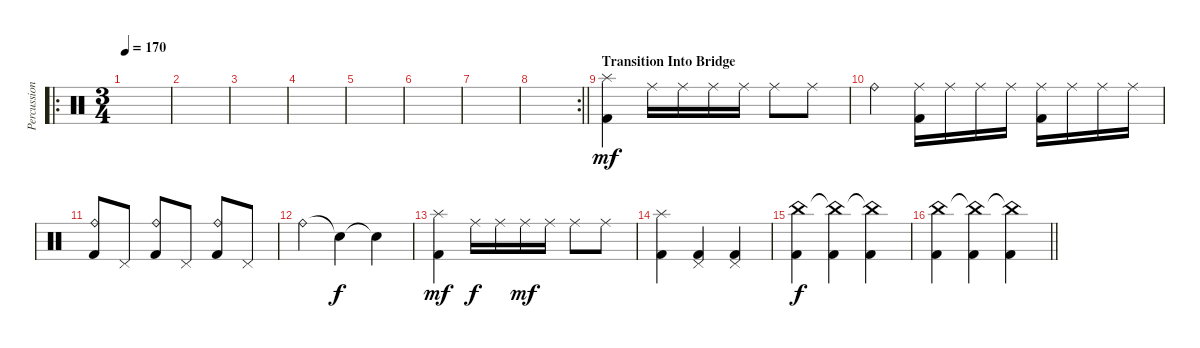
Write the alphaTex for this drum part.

\track ("Percussion" "Percussion") {instrument percussion}
\staff {score}
\articulation defaults
\ro
\ts (3 4)
\tempo 170
\clef neutral
\ks c
|
|
|
|
|
|
|
\rc 2
\barLineRight lightlight
|
\section ("" "Transition Into Bridge")
("Splash (hit)" "Kick (hit) 2").4{dy mf} "Ride (middle)".16 "Ride (middle)".16 "Ride (middle)".16 "Ride (middle)".16 "Ride (middle)".8 "Ride (middle)".8 |
"Ride (bell)".4 ("Ride (middle)" "Kick (hit) 2").16 "Ride (middle)".16 "Ride (middle)".16 "Ride (middle)".16 ("Ride (middle)" "Kick (hit) 2").16 "Ride (middle)".16 "Ride (middle)".16 "Ride (middle)".16 |
("Ride (bell)" "Kick (hit) 2").8 "Pedal Hi-Hat (hit)".8 ("Ride (bell)" "Kick (hit) 2").8 "Pedal Hi-Hat (hit)".8 ("Ride (bell)" "Kick (hit) 2").8 "Pedal Hi-Hat (hit)".8 |
"Ride (bell)".4 "Snare (hit)"{t}.4{dy f} "Snare (hit)"{t}.4 |
("Splash (hit)" "Kick (hit) 2").4{dy mf} "Ride (middle)".16{dy f} "Ride (middle)".16 "Ride (middle)".16{dy mf} "Ride (middle)".16 "Ride (middle)".8 "Ride (middle)".8 |
("Splash (hit)" "Kick (hit) 2").4 ("Pedal Hi-Hat (hit)" "Kick (hit) 2").4 ("Pedal Hi-Hat (hit)" "Kick (hit) 2").4 |
("China (hit)" "Kick (hit) 2").4{dy f} ("China (hit)"{t} "Kick (hit) 2").4 ("China (hit)"{t} "Kick (hit) 2").4 |
\barLineRight lightlight
("China (hit)" "Kick (hit) 2").4 ("China (hit)"{t} "Kick (hit) 2").4 ("China (hit)"{t} "Kick (hit) 2").4
